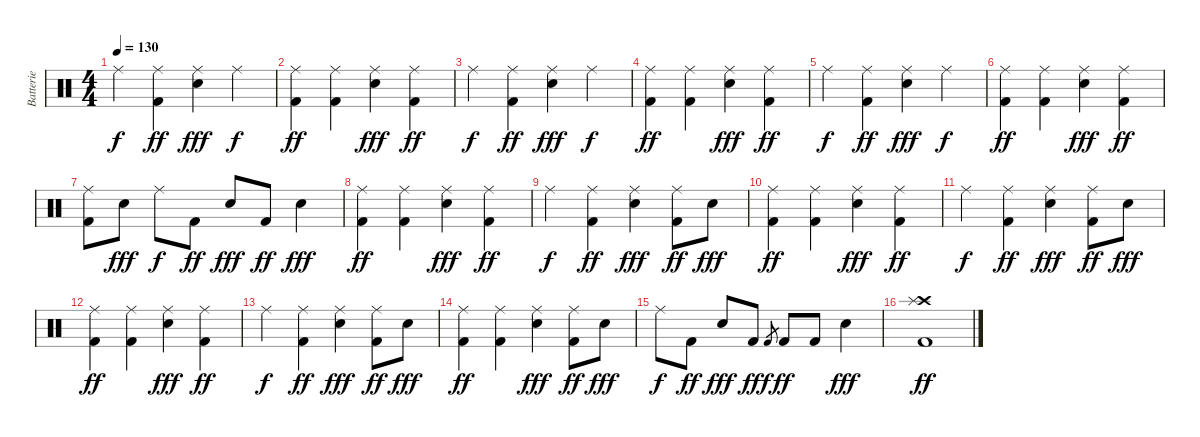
\track ("Batterie" "Batterie") {instrument percussion}
\staff {score}
\articulation defaults
\ts (4 4)
\tempo 130
\clef neutral
\ks c "Ride (middle)".4{dy f}
("Ride (middle)" "Kick (hit) 2").4{dy ff} ("Ride (middle)" "Electric Snare (hit)").4{dy fff} "Ride (middle)".4{dy f} |
("Ride (middle)" "Kick (hit) 2").4{dy ff} ("Ride (middle)" "Kick (hit) 2").4 ("Ride (middle)" "Electric Snare (hit)").4{dy fff} ("Ride (middle)" "Kick (hit) 2").4{dy ff} |
"Ride (middle)".4{dy f} ("Ride (middle)" "Kick (hit) 2").4{dy ff} ("Ride (middle)" "Electric Snare (hit)").4{dy fff} "Ride (middle)".4{dy f} |
("Ride (middle)" "Kick (hit) 2").4{dy ff} ("Ride (middle)" "Kick (hit) 2").4 ("Ride (middle)" "Electric Snare (hit)").4{dy fff} ("Ride (middle)" "Kick (hit) 2").4{dy ff} |
"Ride (middle)".4{dy f} ("Ride (middle)" "Kick (hit) 2").4{dy ff} ("Ride (middle)" "Electric Snare (hit)").4{dy fff} "Ride (middle)".4{dy f} |
("Ride (middle)" "Kick (hit) 2").4{dy ff} ("Ride (middle)" "Kick (hit) 2").4 ("Ride (middle)" "Electric Snare (hit)").4{dy fff} ("Ride (middle)" "Kick (hit) 2").4{dy ff} |
("Ride (middle)" "Kick (hit) 2").8 "Electric Snare (hit)".8{dy fff} "Ride (middle)".8{dy f} "Kick (hit) 2".8{dy ff} "Electric Snare (hit)".8{dy fff} "Kick (hit) 2".8{dy ff} "Electric Snare (hit)".4{dy fff} |
("Ride (middle)" "Kick (hit) 2").4{dy ff} ("Ride (middle)" "Kick (hit) 2").4 ("Ride (middle)" "Electric Snare (hit)").4{dy fff} ("Ride (middle)" "Kick (hit) 2").4{dy ff} |
"Ride (middle)".4{dy f} ("Ride (middle)" "Kick (hit) 2").4{dy ff} ("Ride (middle)" "Electric Snare (hit)").4{dy fff} ("Ride (middle)" "Kick (hit) 2").8{dy ff} "Electric Snare (hit)".8{dy fff} |
("Ride (middle)" "Kick (hit) 2").4{dy ff} ("Ride (middle)" "Kick (hit) 2").4 ("Ride (middle)" "Electric Snare (hit)").4{dy fff} ("Ride (middle)" "Kick (hit) 2").4{dy ff} |
"Ride (middle)".4{dy f} ("Ride (middle)" "Kick (hit) 2").4{dy ff} ("Ride (middle)" "Electric Snare (hit)").4{dy fff} ("Ride (middle)" "Kick (hit) 2").8{dy ff} "Electric Snare (hit)".8{dy fff} |
("Ride (middle)" "Kick (hit) 2").4{dy ff} ("Ride (middle)" "Kick (hit) 2").4 ("Ride (middle)" "Electric Snare (hit)").4{dy fff} ("Ride (middle)" "Kick (hit) 2").4{dy ff} |
"Ride (middle)".4{dy f} ("Ride (middle)" "Kick (hit) 2").4{dy ff} ("Ride (middle)" "Electric Snare (hit)").4{dy fff} ("Ride (middle)" "Kick (hit) 2").8{dy ff} "Electric Snare (hit)".8{dy fff} |
("Ride (middle)" "Kick (hit) 2").4{dy ff} ("Ride (middle)" "Kick (hit) 2").4 ("Ride (middle)" "Electric Snare (hit)").4{dy fff} ("Ride (middle)" "Kick (hit) 2").8{dy ff} "Electric Snare (hit)".8{dy fff} |
"Ride (middle)".8{dy f} "Kick (hit) 2".8{dy ff} "Electric Snare (hit)".8{dy fff} "Kick (hit) 2".8{dy ff} "Kick (hit) 2".8{gr dy f} "Kick (hit) 2".8{dy ff} "Kick (hit) 2".8 "Electric Snare (hit)".4{dy fff} |
("Crash high (hit)" "Splash (hit)" "Kick (hit) 2").1{dy ff}
